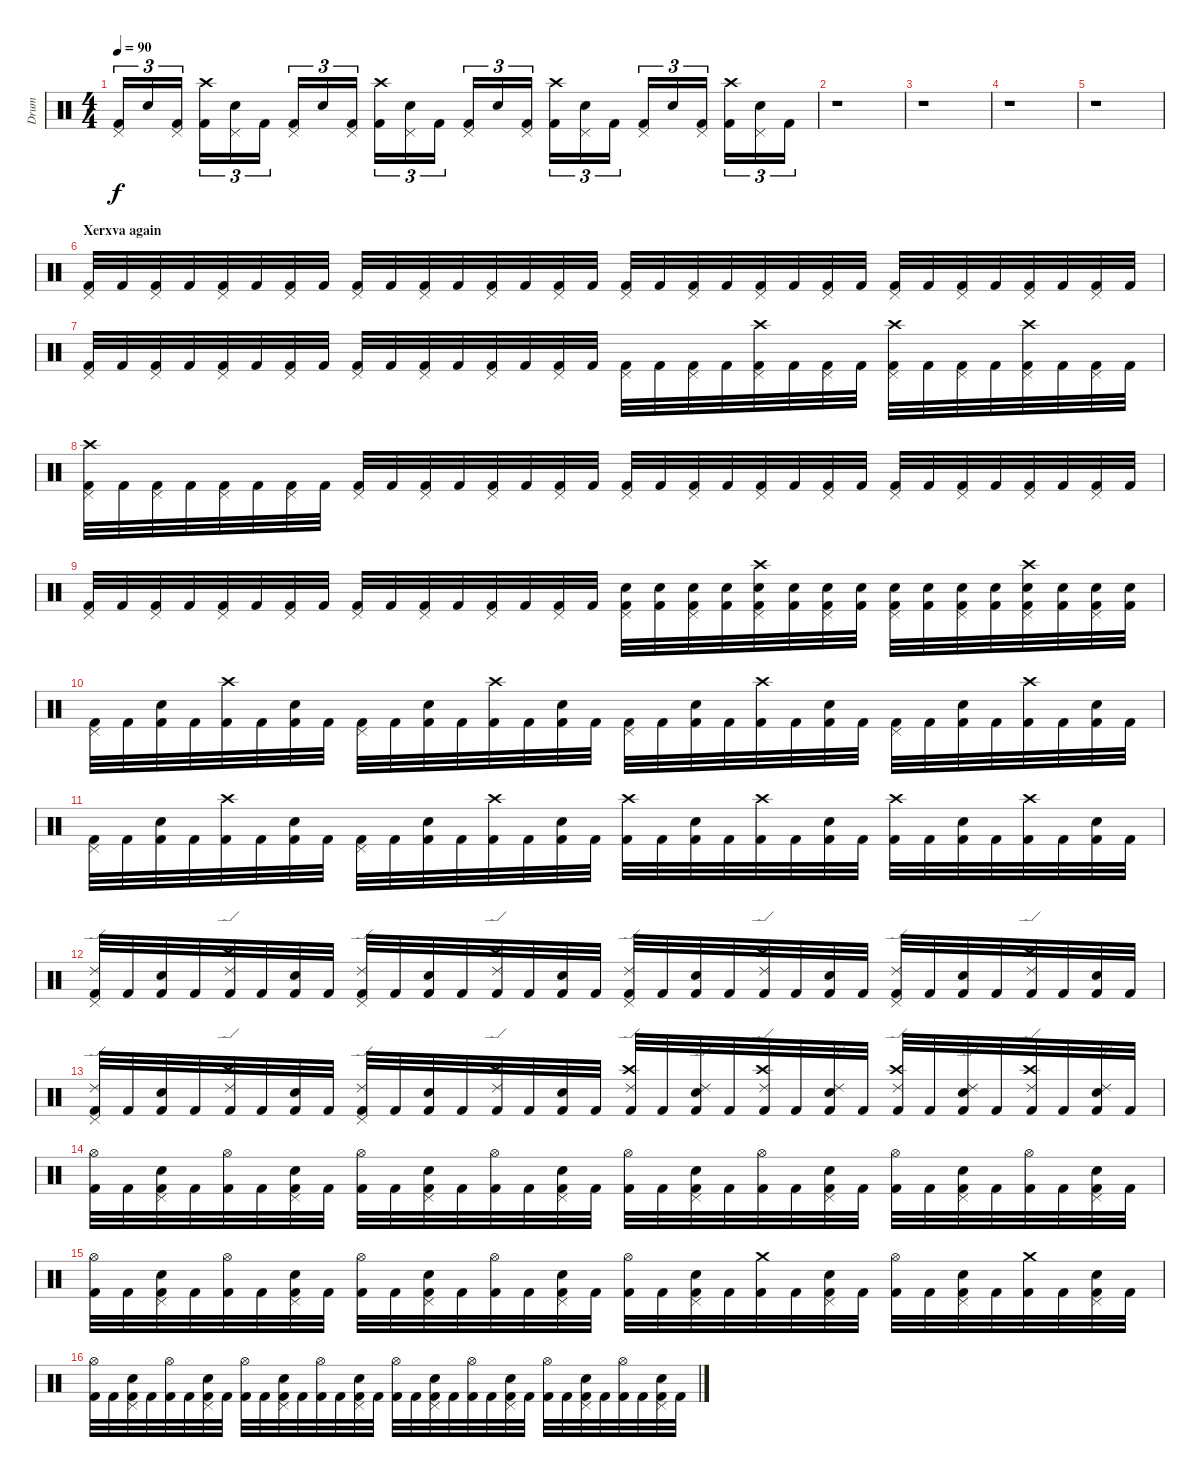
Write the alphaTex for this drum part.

\track ("Drum" "Drum") {instrument percussion}
\staff {score}
\articulation defaults
\ts (4 4)
\tempo 90
\clef neutral
\ks c
("Kick (hit) 2" "Pedal Hi-Hat (hit)").16{tu (3 2) dy f} "Snare (hit) 2".16{tu (3 2)} ("Kick (hit) 2" "Pedal Hi-Hat (hit)").16{tu (3 2)} ("Kick (hit) 2" "Crash high (hit)").16{tu (3 2)} ("Snare (hit) 2" "Pedal Hi-Hat (hit)").16{tu (3 2)} "Kick (hit) 2".16{tu (3 2)} ("Kick (hit) 2" "Pedal Hi-Hat (hit)").16{tu (3 2)} "Snare (hit) 2".16{tu (3 2)} ("Kick (hit) 2" "Pedal Hi-Hat (hit)").16{tu (3 2)} ("Kick (hit) 2" "Crash high (hit)").16{tu (3 2)} ("Snare (hit) 2" "Pedal Hi-Hat (hit)").16{tu (3 2)} "Kick (hit) 2".16{tu (3 2)} ("Kick (hit) 2" "Pedal Hi-Hat (hit)").16{tu (3 2)} "Snare (hit) 2".16{tu (3 2)} ("Kick (hit) 2" "Pedal Hi-Hat (hit)").16{tu (3 2)} ("Kick (hit) 2" "Crash high (hit)").16{tu (3 2)} ("Snare (hit) 2" "Pedal Hi-Hat (hit)").16{tu (3 2)} "Kick (hit) 2".16{tu (3 2)} ("Kick (hit) 2" "Pedal Hi-Hat (hit)").16{tu (3 2)} "Snare (hit) 2".16{tu (3 2)} ("Kick (hit) 2" "Pedal Hi-Hat (hit)").16{tu (3 2)} ("Kick (hit) 2" "Crash high (hit)").16{tu (3 2)} ("Snare (hit) 2" "Pedal Hi-Hat (hit)").16{tu (3 2)} "Kick (hit) 2".16{tu (3 2)} |
r.1 |
r.1 |
r.1 |
r.1 |
\section ("" "Xerxva again")
("Kick (hit) 2" "Pedal Hi-Hat (hit)").32 "Kick (hit) 2".32 ("Kick (hit) 2" "Pedal Hi-Hat (hit)").32 "Kick (hit) 2".32 ("Kick (hit) 2" "Pedal Hi-Hat (hit)").32 "Kick (hit) 2".32 ("Kick (hit) 2" "Pedal Hi-Hat (hit)").32 "Kick (hit) 2".32 ("Kick (hit) 2" "Pedal Hi-Hat (hit)").32 "Kick (hit) 2".32 ("Kick (hit) 2" "Pedal Hi-Hat (hit)").32 "Kick (hit) 2".32 ("Kick (hit) 2" "Pedal Hi-Hat (hit)").32 "Kick (hit) 2".32 ("Kick (hit) 2" "Pedal Hi-Hat (hit)").32 "Kick (hit) 2".32 ("Kick (hit) 2" "Pedal Hi-Hat (hit)").32 "Kick (hit) 2".32 ("Kick (hit) 2" "Pedal Hi-Hat (hit)").32 "Kick (hit) 2".32 ("Kick (hit) 2" "Pedal Hi-Hat (hit)").32 "Kick (hit) 2".32 ("Kick (hit) 2" "Pedal Hi-Hat (hit)").32 "Kick (hit) 2".32 ("Kick (hit) 2" "Pedal Hi-Hat (hit)").32 "Kick (hit) 2".32 ("Kick (hit) 2" "Pedal Hi-Hat (hit)").32 "Kick (hit) 2".32 ("Kick (hit) 2" "Pedal Hi-Hat (hit)").32 "Kick (hit) 2".32 ("Kick (hit) 2" "Pedal Hi-Hat (hit)").32 "Kick (hit) 2".32 |
("Kick (hit) 2" "Pedal Hi-Hat (hit)").32 "Kick (hit) 2".32 ("Kick (hit) 2" "Pedal Hi-Hat (hit)").32 "Kick (hit) 2".32 ("Kick (hit) 2" "Pedal Hi-Hat (hit)").32 "Kick (hit) 2".32 ("Kick (hit) 2" "Pedal Hi-Hat (hit)").32 "Kick (hit) 2".32 ("Kick (hit) 2" "Pedal Hi-Hat (hit)").32 "Kick (hit) 2".32 ("Kick (hit) 2" "Pedal Hi-Hat (hit)").32 "Kick (hit) 2".32 ("Kick (hit) 2" "Pedal Hi-Hat (hit)").32 "Kick (hit) 2".32 ("Kick (hit) 2" "Pedal Hi-Hat (hit)").32 "Kick (hit) 2".32 ("Kick (hit) 2" "Pedal Hi-Hat (hit)").32 "Kick (hit) 2".32 ("Kick (hit) 2" "Pedal Hi-Hat (hit)").32 "Kick (hit) 2".32 ("Kick (hit) 2" "Pedal Hi-Hat (hit)" "Crash high (hit)").32 "Kick (hit) 2".32 ("Kick (hit) 2" "Pedal Hi-Hat (hit)").32 "Kick (hit) 2".32 ("Kick (hit) 2" "Pedal Hi-Hat (hit)" "Crash high (hit)").32 "Kick (hit) 2".32 ("Kick (hit) 2" "Pedal Hi-Hat (hit)").32 "Kick (hit) 2".32 ("Kick (hit) 2" "Pedal Hi-Hat (hit)" "Crash high (hit)").32 "Kick (hit) 2".32 ("Kick (hit) 2" "Pedal Hi-Hat (hit)").32 "Kick (hit) 2".32 |
("Kick (hit) 2" "Pedal Hi-Hat (hit)" "Crash high (hit)").32 "Kick (hit) 2".32 ("Kick (hit) 2" "Pedal Hi-Hat (hit)").32 "Kick (hit) 2".32 ("Kick (hit) 2" "Pedal Hi-Hat (hit)").32 "Kick (hit) 2".32 ("Kick (hit) 2" "Pedal Hi-Hat (hit)").32 "Kick (hit) 2".32 ("Kick (hit) 2" "Pedal Hi-Hat (hit)").32 "Kick (hit) 2".32 ("Kick (hit) 2" "Pedal Hi-Hat (hit)").32 "Kick (hit) 2".32 ("Kick (hit) 2" "Pedal Hi-Hat (hit)").32 "Kick (hit) 2".32 ("Kick (hit) 2" "Pedal Hi-Hat (hit)").32 "Kick (hit) 2".32 ("Kick (hit) 2" "Pedal Hi-Hat (hit)").32 "Kick (hit) 2".32 ("Kick (hit) 2" "Pedal Hi-Hat (hit)").32 "Kick (hit) 2".32 ("Kick (hit) 2" "Pedal Hi-Hat (hit)").32 "Kick (hit) 2".32 ("Kick (hit) 2" "Pedal Hi-Hat (hit)").32 "Kick (hit) 2".32 ("Kick (hit) 2" "Pedal Hi-Hat (hit)").32 "Kick (hit) 2".32 ("Kick (hit) 2" "Pedal Hi-Hat (hit)").32 "Kick (hit) 2".32 ("Kick (hit) 2" "Pedal Hi-Hat (hit)").32 "Kick (hit) 2".32 ("Kick (hit) 2" "Pedal Hi-Hat (hit)").32 "Kick (hit) 2".32 |
("Kick (hit) 2" "Pedal Hi-Hat (hit)").32 "Kick (hit) 2".32 ("Kick (hit) 2" "Pedal Hi-Hat (hit)").32 "Kick (hit) 2".32 ("Kick (hit) 2" "Pedal Hi-Hat (hit)").32 "Kick (hit) 2".32 ("Kick (hit) 2" "Pedal Hi-Hat (hit)").32 "Kick (hit) 2".32 ("Kick (hit) 2" "Pedal Hi-Hat (hit)").32 "Kick (hit) 2".32 ("Kick (hit) 2" "Pedal Hi-Hat (hit)").32 "Kick (hit) 2".32 ("Kick (hit) 2" "Pedal Hi-Hat (hit)").32 "Kick (hit) 2".32 ("Kick (hit) 2" "Pedal Hi-Hat (hit)").32 "Kick (hit) 2".32 ("Kick (hit) 2" "Pedal Hi-Hat (hit)" "Snare (hit) 2").32 ("Kick (hit) 2" "Snare (hit) 2").32 ("Kick (hit) 2" "Pedal Hi-Hat (hit)" "Snare (hit) 2").32 ("Kick (hit) 2" "Snare (hit) 2").32 ("Kick (hit) 2" "Pedal Hi-Hat (hit)" "Snare (hit) 2" "Crash high (hit)").32 ("Kick (hit) 2" "Snare (hit) 2").32 ("Kick (hit) 2" "Pedal Hi-Hat (hit)" "Snare (hit) 2").32 ("Kick (hit) 2" "Snare (hit) 2").32 ("Kick (hit) 2" "Pedal Hi-Hat (hit)" "Snare (hit) 2").32 ("Kick (hit) 2" "Snare (hit) 2").32 ("Kick (hit) 2" "Pedal Hi-Hat (hit)" "Snare (hit) 2").32 ("Kick (hit) 2" "Snare (hit) 2").32 ("Kick (hit) 2" "Pedal Hi-Hat (hit)" "Snare (hit) 2" "Crash high (hit)").32 ("Kick (hit) 2" "Snare (hit) 2").32 ("Kick (hit) 2" "Pedal Hi-Hat (hit)" "Snare (hit) 2").32 ("Kick (hit) 2" "Snare (hit) 2").32 |
("Kick (hit) 2" "Pedal Hi-Hat (hit)").32 "Kick (hit) 2".32 ("Kick (hit) 2" "Snare (hit) 2").32 "Kick (hit) 2".32 ("Kick (hit) 2" "Crash high (hit)").32 "Kick (hit) 2".32 ("Kick (hit) 2" "Snare (hit) 2").32 "Kick (hit) 2".32 ("Kick (hit) 2" "Pedal Hi-Hat (hit)").32 "Kick (hit) 2".32 ("Kick (hit) 2" "Snare (hit) 2").32 "Kick (hit) 2".32 ("Kick (hit) 2" "Crash high (hit)").32 "Kick (hit) 2".32 ("Kick (hit) 2" "Snare (hit) 2").32 "Kick (hit) 2".32 ("Kick (hit) 2" "Pedal Hi-Hat (hit)").32 "Kick (hit) 2".32 ("Kick (hit) 2" "Snare (hit) 2").32 "Kick (hit) 2".32 ("Kick (hit) 2" "Crash high (hit)").32 "Kick (hit) 2".32 ("Kick (hit) 2" "Snare (hit) 2").32 "Kick (hit) 2".32 ("Kick (hit) 2" "Pedal Hi-Hat (hit)").32 "Kick (hit) 2".32 ("Kick (hit) 2" "Snare (hit) 2").32 "Kick (hit) 2".32 ("Kick (hit) 2" "Crash high (hit)").32 "Kick (hit) 2".32 ("Kick (hit) 2" "Snare (hit) 2").32 "Kick (hit) 2".32 |
("Kick (hit) 2" "Pedal Hi-Hat (hit)").32 "Kick (hit) 2".32 ("Kick (hit) 2" "Snare (hit) 2").32 "Kick (hit) 2".32 ("Kick (hit) 2" "Crash high (hit)").32 "Kick (hit) 2".32 ("Kick (hit) 2" "Snare (hit) 2").32 "Kick (hit) 2".32 ("Kick (hit) 2" "Pedal Hi-Hat (hit)").32 "Kick (hit) 2".32 ("Kick (hit) 2" "Snare (hit) 2").32 "Kick (hit) 2".32 ("Kick (hit) 2" "Crash high (hit)").32 "Kick (hit) 2".32 ("Kick (hit) 2" "Snare (hit) 2").32 "Kick (hit) 2".32 ("Kick (hit) 2" "Crash high (hit)").32 "Kick (hit) 2".32 ("Kick (hit) 2" "Snare (hit) 2").32 "Kick (hit) 2".32 ("Kick (hit) 2" "Crash high (hit)").32 "Kick (hit) 2".32 ("Kick (hit) 2" "Snare (hit) 2").32 "Kick (hit) 2".32 ("Kick (hit) 2" "Crash high (hit)").32 "Kick (hit) 2".32 ("Kick (hit) 2" "Snare (hit) 2").32 "Kick (hit) 2".32 ("Kick (hit) 2" "Crash high (hit)").32 "Kick (hit) 2".32 ("Kick (hit) 2" "Snare (hit) 2").32 "Kick (hit) 2".32 |
("Kick (hit) 2" "Pedal Hi-Hat (hit)" "Ride (edge) 2").32 "Kick (hit) 2".32 ("Kick (hit) 2" "Snare (hit) 2").32 "Kick (hit) 2".32 ("Kick (hit) 2" "Crash high (hit)" "Ride (edge) 2").32 "Kick (hit) 2".32 ("Kick (hit) 2" "Snare (hit) 2").32 "Kick (hit) 2".32 ("Kick (hit) 2" "Pedal Hi-Hat (hit)" "Ride (edge) 2").32 "Kick (hit) 2".32 ("Kick (hit) 2" "Snare (hit) 2").32 "Kick (hit) 2".32 ("Kick (hit) 2" "Crash high (hit)" "Ride (edge) 2").32 "Kick (hit) 2".32 ("Kick (hit) 2" "Snare (hit) 2").32 "Kick (hit) 2".32 ("Kick (hit) 2" "Pedal Hi-Hat (hit)" "Ride (edge) 2").32 "Kick (hit) 2".32 ("Kick (hit) 2" "Snare (hit) 2").32 "Kick (hit) 2".32 ("Kick (hit) 2" "Crash high (hit)" "Ride (edge) 2").32 "Kick (hit) 2".32 ("Kick (hit) 2" "Snare (hit) 2").32 "Kick (hit) 2".32 ("Kick (hit) 2" "Pedal Hi-Hat (hit)" "Ride (edge) 2").32 "Kick (hit) 2".32 ("Kick (hit) 2" "Snare (hit) 2").32 "Kick (hit) 2".32 ("Kick (hit) 2" "Crash high (hit)" "Ride (edge) 2").32 "Kick (hit) 2".32 ("Kick (hit) 2" "Snare (hit) 2").32 "Kick (hit) 2".32 |
("Kick (hit) 2" "Pedal Hi-Hat (hit)" "Ride (edge) 2").32 "Kick (hit) 2".32 ("Kick (hit) 2" "Snare (hit) 2").32 "Kick (hit) 2".32 ("Kick (hit) 2" "Crash high (hit)" "Ride (edge) 2").32 "Kick (hit) 2".32 ("Kick (hit) 2" "Snare (hit) 2").32 "Kick (hit) 2".32 ("Kick (hit) 2" "Pedal Hi-Hat (hit)" "Ride (edge) 2").32 "Kick (hit) 2".32 ("Kick (hit) 2" "Snare (hit) 2").32 "Kick (hit) 2".32 ("Kick (hit) 2" "Crash high (hit)" "Ride (edge) 2").32 "Kick (hit) 2".32 ("Kick (hit) 2" "Snare (hit) 2").32 "Kick (hit) 2".32 ("Kick (hit) 2" "Crash high (hit)" "Ride (edge) 2").32 "Kick (hit) 2".32 ("Kick (hit) 2" "Snare (hit) 2" "Ride (edge) 2").32 "Kick (hit) 2".32 ("Kick (hit) 2" "Crash high (hit)" "Ride (edge) 2").32 "Kick (hit) 2".32 ("Kick (hit) 2" "Snare (hit) 2" "Ride (edge) 2").32 "Kick (hit) 2".32 ("Kick (hit) 2" "Crash high (hit)" "Ride (edge) 2").32 "Kick (hit) 2".32 ("Kick (hit) 2" "Snare (hit) 2" "Ride (edge) 2").32 "Kick (hit) 2".32 ("Kick (hit) 2" "Crash high (hit)" "Ride (edge) 2").32 "Kick (hit) 2".32 ("Kick (hit) 2" "Snare (hit) 2" "Ride (edge) 2").32 "Kick (hit) 2".32 |
("Kick (hit) 2" "Hi-Hat (open)").32 "Kick (hit) 2".32 ("Kick (hit) 2" "Pedal Hi-Hat (hit)" "Snare (hit) 2").32 "Kick (hit) 2".32 ("Kick (hit) 2" "Hi-Hat (open)").32 "Kick (hit) 2".32 ("Kick (hit) 2" "Pedal Hi-Hat (hit)" "Snare (hit) 2").32 "Kick (hit) 2".32 ("Kick (hit) 2" "Hi-Hat (open)").32 "Kick (hit) 2".32 ("Kick (hit) 2" "Pedal Hi-Hat (hit)" "Snare (hit) 2").32 "Kick (hit) 2".32 ("Kick (hit) 2" "Hi-Hat (open)").32 "Kick (hit) 2".32 ("Kick (hit) 2" "Pedal Hi-Hat (hit)" "Snare (hit) 2").32 "Kick (hit) 2".32 ("Kick (hit) 2" "Hi-Hat (open)").32 "Kick (hit) 2".32 ("Kick (hit) 2" "Pedal Hi-Hat (hit)" "Snare (hit) 2").32 "Kick (hit) 2".32 ("Kick (hit) 2" "Hi-Hat (open)").32 "Kick (hit) 2".32 ("Kick (hit) 2" "Pedal Hi-Hat (hit)" "Snare (hit) 2").32 "Kick (hit) 2".32 ("Kick (hit) 2" "Hi-Hat (open)").32 "Kick (hit) 2".32 ("Kick (hit) 2" "Pedal Hi-Hat (hit)" "Snare (hit) 2").32 "Kick (hit) 2".32 ("Kick (hit) 2" "Hi-Hat (open)").32 "Kick (hit) 2".32 ("Kick (hit) 2" "Pedal Hi-Hat (hit)" "Snare (hit) 2").32 "Kick (hit) 2".32 |
("Kick (hit) 2" "Hi-Hat (open)").32 "Kick (hit) 2".32 ("Kick (hit) 2" "Pedal Hi-Hat (hit)" "Snare (hit) 2").32 "Kick (hit) 2".32 ("Kick (hit) 2" "Hi-Hat (open)").32 "Kick (hit) 2".32 ("Kick (hit) 2" "Pedal Hi-Hat (hit)" "Snare (hit) 2").32 "Kick (hit) 2".32 ("Kick (hit) 2" "Hi-Hat (open)").32 "Kick (hit) 2".32 ("Kick (hit) 2" "Pedal Hi-Hat (hit)" "Snare (hit) 2").32 "Kick (hit) 2".32 ("Kick (hit) 2" "Hi-Hat (open)").32 "Kick (hit) 2".32 ("Kick (hit) 2" "Pedal Hi-Hat (hit)" "Snare (hit) 2").32 "Kick (hit) 2".32 ("Kick (hit) 2" "Hi-Hat (open)").32 "Kick (hit) 2".32 ("Kick (hit) 2" "Pedal Hi-Hat (hit)" "Snare (hit) 2").32 "Kick (hit) 2".32 ("Kick (hit) 2" "Crash medium (hit)").32 "Kick (hit) 2".32 ("Kick (hit) 2" "Pedal Hi-Hat (hit)" "Snare (hit) 2").32 "Kick (hit) 2".32 ("Kick (hit) 2" "Hi-Hat (open)").32 "Kick (hit) 2".32 ("Kick (hit) 2" "Pedal Hi-Hat (hit)" "Snare (hit) 2").32 "Kick (hit) 2".32 ("Kick (hit) 2" "Crash medium (hit)").32 "Kick (hit) 2".32 ("Kick (hit) 2" "Pedal Hi-Hat (hit)" "Snare (hit) 2").32 "Kick (hit) 2".32 |
("Kick (hit) 2" "Hi-Hat (open)").32 "Kick (hit) 2".32 ("Kick (hit) 2" "Pedal Hi-Hat (hit)" "Snare (hit) 2").32 "Kick (hit) 2".32 ("Kick (hit) 2" "Hi-Hat (open)").32 "Kick (hit) 2".32 ("Kick (hit) 2" "Pedal Hi-Hat (hit)" "Snare (hit) 2").32 "Kick (hit) 2".32 ("Kick (hit) 2" "Hi-Hat (open)").32 "Kick (hit) 2".32 ("Kick (hit) 2" "Pedal Hi-Hat (hit)" "Snare (hit) 2").32 "Kick (hit) 2".32 ("Kick (hit) 2" "Hi-Hat (open)").32 "Kick (hit) 2".32 ("Kick (hit) 2" "Pedal Hi-Hat (hit)" "Snare (hit) 2").32 "Kick (hit) 2".32 ("Kick (hit) 2" "Hi-Hat (open)").32 "Kick (hit) 2".32 ("Kick (hit) 2" "Pedal Hi-Hat (hit)" "Snare (hit) 2").32 "Kick (hit) 2".32 ("Kick (hit) 2" "Hi-Hat (open)").32 "Kick (hit) 2".32 ("Kick (hit) 2" "Pedal Hi-Hat (hit)" "Snare (hit) 2").32 "Kick (hit) 2".32 ("Kick (hit) 2" "Hi-Hat (open)").32 "Kick (hit) 2".32 ("Kick (hit) 2" "Pedal Hi-Hat (hit)" "Snare (hit) 2").32 "Kick (hit) 2".32 ("Kick (hit) 2" "Hi-Hat (open)").32 "Kick (hit) 2".32 ("Kick (hit) 2" "Pedal Hi-Hat (hit)" "Snare (hit) 2").32 "Kick (hit) 2".32
